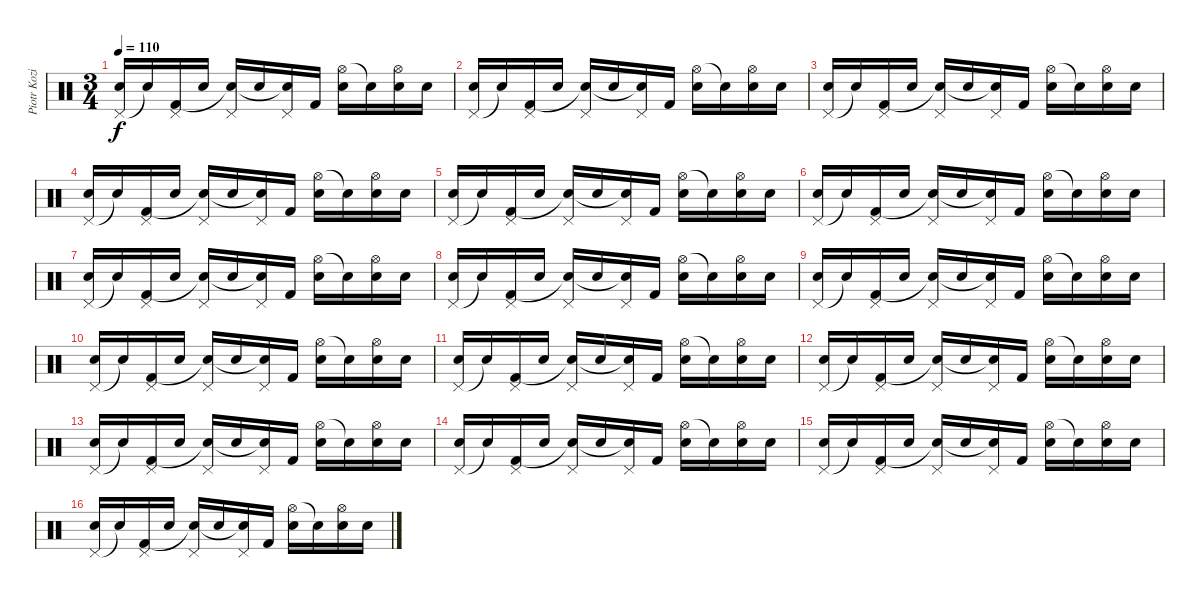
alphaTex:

\track ("Piotr Kozieradzki" "Piotr Kozi") {instrument percussion}
\staff {score}
\articulation defaults
\ts (3 4)
\tempo 110
\clef neutral
\ks c
("Pedal Hi-Hat (hit)" "Electric Snare (hit)").16{dy f} "Snare (hit)"{t}.16 ("Pedal Hi-Hat (hit)" "Kick (hit) 2").16 "Electric Snare (hit)".16 ("Pedal Hi-Hat (hit)" "Snare (hit)"{t}).16 "Electric Snare (hit)".16 ("Pedal Hi-Hat (hit)" "Snare (hit)"{t}).16 "Kick (hit) 2".16 ("Hi-Hat (open)" "Electric Snare (hit)").16 "Snare (hit)"{t}.16 ("Hi-Hat (open)" "Electric Snare (hit)").16 "Electric Snare (hit)".16 |
("Pedal Hi-Hat (hit)" "Electric Snare (hit)").16 "Snare (hit)"{t}.16 ("Pedal Hi-Hat (hit)" "Kick (hit) 2").16 "Electric Snare (hit)".16 ("Pedal Hi-Hat (hit)" "Snare (hit)"{t}).16 "Electric Snare (hit)".16 ("Pedal Hi-Hat (hit)" "Snare (hit)"{t}).16 "Kick (hit) 2".16 ("Hi-Hat (open)" "Electric Snare (hit)").16 "Snare (hit)"{t}.16 ("Hi-Hat (open)" "Electric Snare (hit)").16 "Electric Snare (hit)".16 |
("Pedal Hi-Hat (hit)" "Electric Snare (hit)").16 "Snare (hit)"{t}.16 ("Pedal Hi-Hat (hit)" "Kick (hit) 2").16 "Electric Snare (hit)".16 ("Pedal Hi-Hat (hit)" "Snare (hit)"{t}).16 "Electric Snare (hit)".16 ("Pedal Hi-Hat (hit)" "Snare (hit)"{t}).16 "Kick (hit) 2".16 ("Hi-Hat (open)" "Electric Snare (hit)").16 "Snare (hit)"{t}.16 ("Hi-Hat (open)" "Electric Snare (hit)").16 "Electric Snare (hit)".16 |
("Pedal Hi-Hat (hit)" "Electric Snare (hit)").16 "Snare (hit)"{t}.16 ("Pedal Hi-Hat (hit)" "Kick (hit) 2").16 "Electric Snare (hit)".16 ("Pedal Hi-Hat (hit)" "Snare (hit)"{t}).16 "Electric Snare (hit)".16 ("Pedal Hi-Hat (hit)" "Snare (hit)"{t}).16 "Kick (hit) 2".16 ("Hi-Hat (open)" "Electric Snare (hit)").16 "Snare (hit)"{t}.16 ("Hi-Hat (open)" "Electric Snare (hit)").16 "Electric Snare (hit)".16 |
("Pedal Hi-Hat (hit)" "Electric Snare (hit)").16 "Snare (hit)"{t}.16 ("Pedal Hi-Hat (hit)" "Kick (hit) 2").16 "Electric Snare (hit)".16 ("Pedal Hi-Hat (hit)" "Snare (hit)"{t}).16 "Electric Snare (hit)".16 ("Pedal Hi-Hat (hit)" "Snare (hit)"{t}).16 "Kick (hit) 2".16 ("Hi-Hat (open)" "Electric Snare (hit)").16 "Snare (hit)"{t}.16 ("Hi-Hat (open)" "Electric Snare (hit)").16 "Electric Snare (hit)".16 |
("Pedal Hi-Hat (hit)" "Electric Snare (hit)").16 "Snare (hit)"{t}.16 ("Pedal Hi-Hat (hit)" "Kick (hit) 2").16 "Electric Snare (hit)".16 ("Pedal Hi-Hat (hit)" "Snare (hit)"{t}).16 "Electric Snare (hit)".16 ("Pedal Hi-Hat (hit)" "Snare (hit)"{t}).16 "Kick (hit) 2".16 ("Hi-Hat (open)" "Electric Snare (hit)").16 "Snare (hit)"{t}.16 ("Hi-Hat (open)" "Electric Snare (hit)").16 "Electric Snare (hit)".16 |
("Pedal Hi-Hat (hit)" "Electric Snare (hit)").16 "Snare (hit)"{t}.16 ("Pedal Hi-Hat (hit)" "Kick (hit) 2").16 "Electric Snare (hit)".16 ("Pedal Hi-Hat (hit)" "Snare (hit)"{t}).16 "Electric Snare (hit)".16 ("Pedal Hi-Hat (hit)" "Snare (hit)"{t}).16 "Kick (hit) 2".16 ("Hi-Hat (open)" "Electric Snare (hit)").16 "Snare (hit)"{t}.16 ("Hi-Hat (open)" "Electric Snare (hit)").16 "Electric Snare (hit)".16 |
("Pedal Hi-Hat (hit)" "Electric Snare (hit)").16 "Snare (hit)"{t}.16 ("Pedal Hi-Hat (hit)" "Kick (hit) 2").16 "Electric Snare (hit)".16 ("Pedal Hi-Hat (hit)" "Snare (hit)"{t}).16 "Electric Snare (hit)".16 ("Pedal Hi-Hat (hit)" "Snare (hit)"{t}).16 "Kick (hit) 2".16 ("Hi-Hat (open)" "Electric Snare (hit)").16 "Snare (hit)"{t}.16 ("Hi-Hat (open)" "Electric Snare (hit)").16 "Electric Snare (hit)".16 |
("Pedal Hi-Hat (hit)" "Electric Snare (hit)").16 "Snare (hit)"{t}.16 ("Pedal Hi-Hat (hit)" "Kick (hit) 2").16 "Electric Snare (hit)".16 ("Pedal Hi-Hat (hit)" "Snare (hit)"{t}).16 "Electric Snare (hit)".16 ("Pedal Hi-Hat (hit)" "Snare (hit)"{t}).16 "Kick (hit) 2".16 ("Hi-Hat (open)" "Electric Snare (hit)").16 "Snare (hit)"{t}.16 ("Hi-Hat (open)" "Electric Snare (hit)").16 "Electric Snare (hit)".16 |
("Pedal Hi-Hat (hit)" "Electric Snare (hit)").16 "Snare (hit)"{t}.16 ("Pedal Hi-Hat (hit)" "Kick (hit) 2").16 "Electric Snare (hit)".16 ("Pedal Hi-Hat (hit)" "Snare (hit)"{t}).16 "Electric Snare (hit)".16 ("Pedal Hi-Hat (hit)" "Snare (hit)"{t}).16 "Kick (hit) 2".16 ("Hi-Hat (open)" "Electric Snare (hit)").16 "Snare (hit)"{t}.16 ("Hi-Hat (open)" "Electric Snare (hit)").16 "Electric Snare (hit)".16 |
("Pedal Hi-Hat (hit)" "Electric Snare (hit)").16 "Snare (hit)"{t}.16 ("Pedal Hi-Hat (hit)" "Kick (hit) 2").16 "Electric Snare (hit)".16 ("Pedal Hi-Hat (hit)" "Snare (hit)"{t}).16 "Electric Snare (hit)".16 ("Pedal Hi-Hat (hit)" "Snare (hit)"{t}).16 "Kick (hit) 2".16 ("Hi-Hat (open)" "Electric Snare (hit)").16 "Snare (hit)"{t}.16 ("Hi-Hat (open)" "Electric Snare (hit)").16 "Electric Snare (hit)".16 |
("Pedal Hi-Hat (hit)" "Electric Snare (hit)").16 "Snare (hit)"{t}.16 ("Pedal Hi-Hat (hit)" "Kick (hit) 2").16 "Electric Snare (hit)".16 ("Pedal Hi-Hat (hit)" "Snare (hit)"{t}).16 "Electric Snare (hit)".16 ("Pedal Hi-Hat (hit)" "Snare (hit)"{t}).16 "Kick (hit) 2".16 ("Hi-Hat (open)" "Electric Snare (hit)").16 "Snare (hit)"{t}.16 ("Hi-Hat (open)" "Electric Snare (hit)").16 "Electric Snare (hit)".16 |
("Pedal Hi-Hat (hit)" "Electric Snare (hit)").16 "Snare (hit)"{t}.16 ("Pedal Hi-Hat (hit)" "Kick (hit) 2").16 "Electric Snare (hit)".16 ("Pedal Hi-Hat (hit)" "Snare (hit)"{t}).16 "Electric Snare (hit)".16 ("Pedal Hi-Hat (hit)" "Snare (hit)"{t}).16 "Kick (hit) 2".16 ("Hi-Hat (open)" "Electric Snare (hit)").16 "Snare (hit)"{t}.16 ("Hi-Hat (open)" "Electric Snare (hit)").16 "Electric Snare (hit)".16 |
("Pedal Hi-Hat (hit)" "Electric Snare (hit)").16 "Snare (hit)"{t}.16 ("Pedal Hi-Hat (hit)" "Kick (hit) 2").16 "Electric Snare (hit)".16 ("Pedal Hi-Hat (hit)" "Snare (hit)"{t}).16 "Electric Snare (hit)".16 ("Pedal Hi-Hat (hit)" "Snare (hit)"{t}).16 "Kick (hit) 2".16 ("Hi-Hat (open)" "Electric Snare (hit)").16 "Snare (hit)"{t}.16 ("Hi-Hat (open)" "Electric Snare (hit)").16 "Electric Snare (hit)".16 |
("Pedal Hi-Hat (hit)" "Electric Snare (hit)").16 "Snare (hit)"{t}.16 ("Pedal Hi-Hat (hit)" "Kick (hit) 2").16 "Electric Snare (hit)".16 ("Pedal Hi-Hat (hit)" "Snare (hit)"{t}).16 "Electric Snare (hit)".16 ("Pedal Hi-Hat (hit)" "Snare (hit)"{t}).16 "Kick (hit) 2".16 ("Hi-Hat (open)" "Electric Snare (hit)").16 "Snare (hit)"{t}.16 ("Hi-Hat (open)" "Electric Snare (hit)").16 "Electric Snare (hit)".16 |
("Pedal Hi-Hat (hit)" "Electric Snare (hit)").16 "Snare (hit)"{t}.16 ("Pedal Hi-Hat (hit)" "Kick (hit) 2").16 "Electric Snare (hit)".16 ("Pedal Hi-Hat (hit)" "Snare (hit)"{t}).16 "Electric Snare (hit)".16 ("Pedal Hi-Hat (hit)" "Snare (hit)"{t}).16 "Kick (hit) 2".16 ("Hi-Hat (open)" "Electric Snare (hit)").16 "Snare (hit)"{t}.16 ("Hi-Hat (open)" "Electric Snare (hit)").16 "Electric Snare (hit)".16
